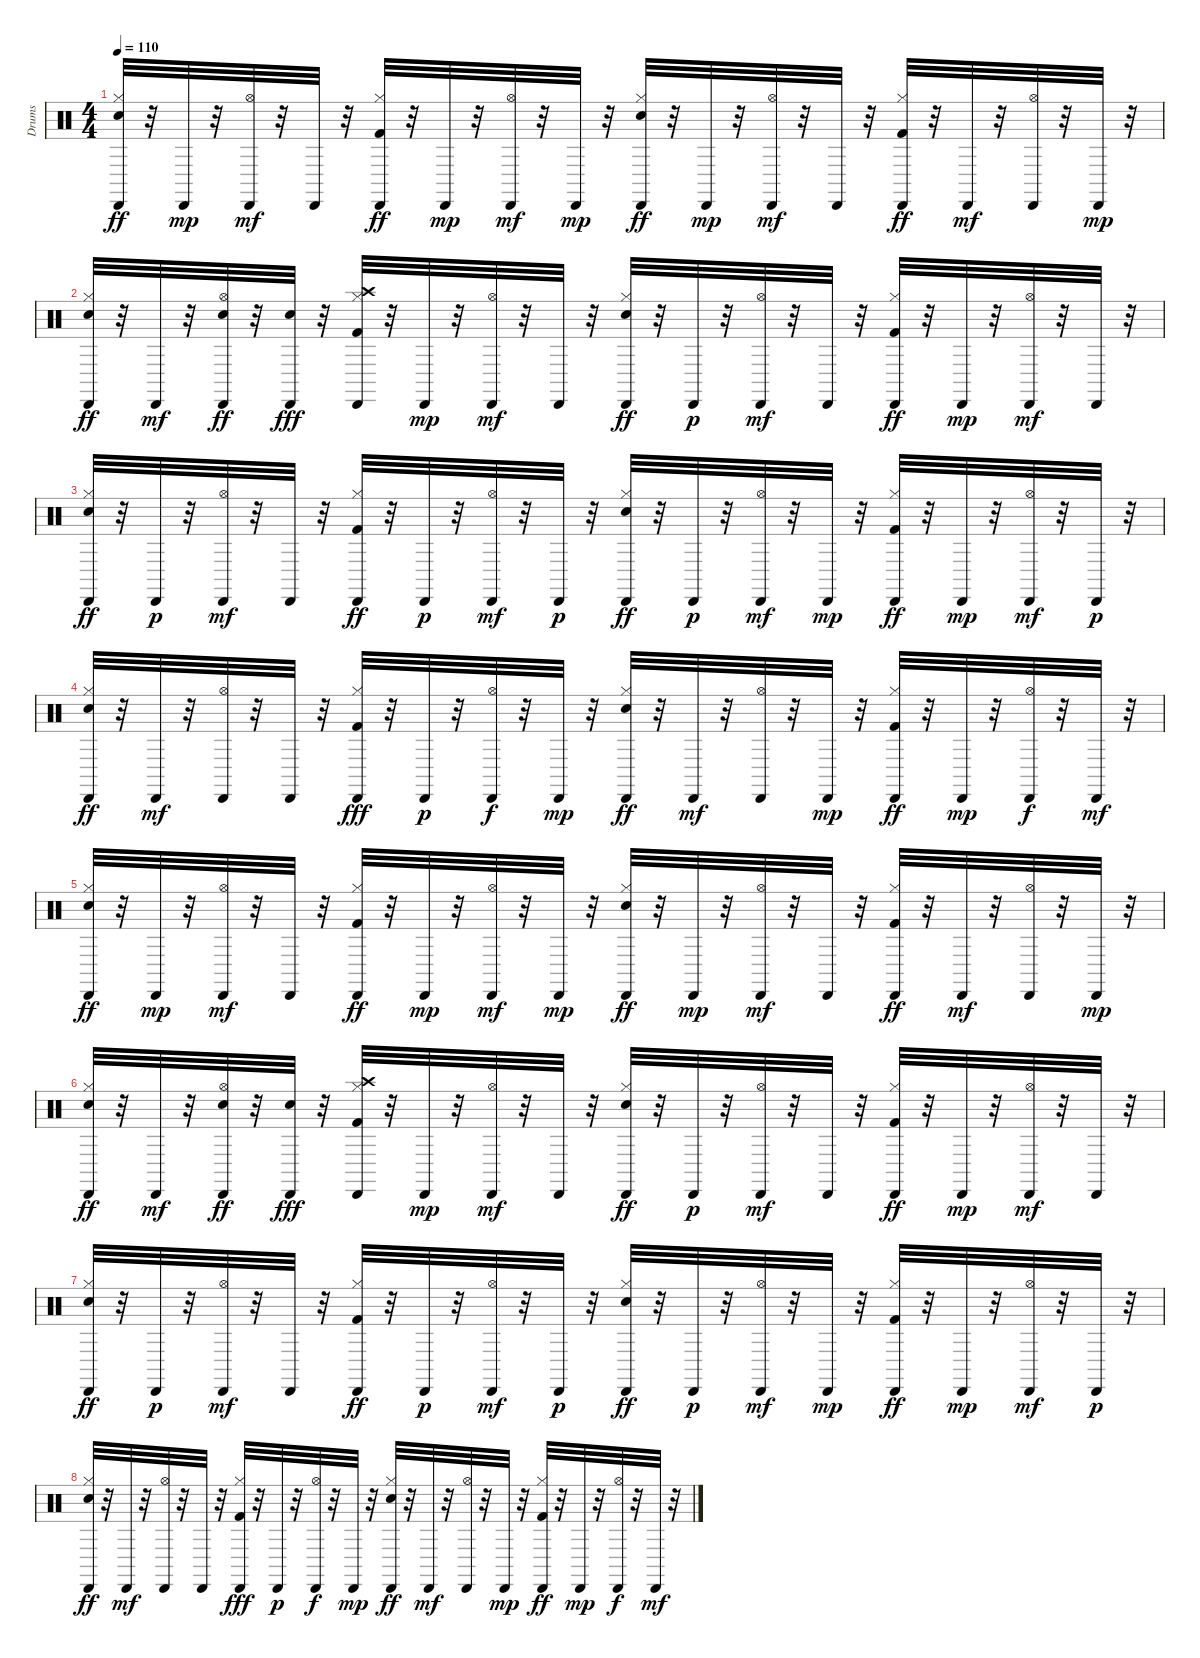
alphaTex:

\track ("Drums" "Drums") {instrument percussion}
\staff {score}
\articulation defaults
\ts (4 4)
\tempo 110
\clef neutral
\ks c
("Cabasa (hit)" "Hi-Hat (closed)" "Snare (hit) 2").32{dy ff} r.32 "Cabasa (hit)".32{dy mp} r.32 ("Hi-Hat (open)" "Cabasa (hit)").32{dy mf} r.32 "Cabasa (hit)".32 r.32 ("Cabasa (hit)" "Hi-Hat (closed)" "Kick (hit) 2").32{dy ff} r.32 "Cabasa (hit)".32{dy mp} r.32 ("Hi-Hat (open)" "Cabasa (hit)").32{dy mf} r.32 "Cabasa (hit)".32{dy mp} r.32 ("Cabasa (hit)" "Hi-Hat (closed)" "Snare (hit) 2").32{dy ff} r.32 "Cabasa (hit)".32{dy mp} r.32 ("Hi-Hat (open)" "Cabasa (hit)").32{dy mf} r.32 "Cabasa (hit)".32 r.32 ("Cabasa (hit)" "Hi-Hat (closed)" "Kick (hit) 2").32{dy ff} r.32 "Cabasa (hit)".32{dy mf} r.32 ("Hi-Hat (open)" "Cabasa (hit)").32 r.32 "Cabasa (hit)".32{dy mp} r.32 |
("Cabasa (hit)" "Hi-Hat (closed)" "Snare (hit) 2").32{dy ff} r.32 "Cabasa (hit)".32{dy mf} r.32 ("Hi-Hat (open)" "Cabasa (hit)" "Snare (hit) 2").32{dy ff} r.32 ("Cabasa (hit)" "Snare (hit) 2").32{dy fff} r.32 ("Cabasa (hit)" "Crash high (hit)" "Hi-Hat (closed)" "Kick (hit) 2").32 r.32 "Cabasa (hit)".32{dy mp} r.32 ("Hi-Hat (open)" "Cabasa (hit)").32{dy mf} r.32 "Cabasa (hit)".32 r.32 ("Cabasa (hit)" "Hi-Hat (closed)" "Snare (hit) 2").32{dy ff} r.32 "Cabasa (hit)".32{dy p} r.32 ("Hi-Hat (open)" "Cabasa (hit)").32{dy mf} r.32 "Cabasa (hit)".32 r.32 ("Cabasa (hit)" "Hi-Hat (closed)" "Kick (hit) 2").32{dy ff} r.32 "Cabasa (hit)".32{dy mp} r.32 ("Hi-Hat (open)" "Cabasa (hit)").32{dy mf} r.32 "Cabasa (hit)".32 r.32 |
("Cabasa (hit)" "Hi-Hat (closed)" "Snare (hit) 2").32{dy ff} r.32 "Cabasa (hit)".32{dy p} r.32 ("Hi-Hat (open)" "Cabasa (hit)").32{dy mf} r.32 "Cabasa (hit)".32 r.32 ("Cabasa (hit)" "Hi-Hat (closed)" "Kick (hit) 2").32{dy ff} r.32 "Cabasa (hit)".32{dy p} r.32 ("Hi-Hat (open)" "Cabasa (hit)").32{dy mf} r.32 "Cabasa (hit)".32{dy p} r.32 ("Cabasa (hit)" "Hi-Hat (closed)" "Snare (hit) 2").32{dy ff} r.32 "Cabasa (hit)".32{dy p} r.32 ("Hi-Hat (open)" "Cabasa (hit)").32{dy mf} r.32 "Cabasa (hit)".32{dy mp} r.32 ("Cabasa (hit)" "Hi-Hat (closed)" "Kick (hit) 2").32{dy ff} r.32 "Cabasa (hit)".32{dy mp} r.32 ("Hi-Hat (open)" "Cabasa (hit)").32{dy mf} r.32 "Cabasa (hit)".32{dy p} r.32 |
("Cabasa (hit)" "Hi-Hat (closed)" "Snare (hit) 2").32{dy ff} r.32 "Cabasa (hit)".32{dy mf} r.32 ("Hi-Hat (open)" "Cabasa (hit)").32 r.32 "Cabasa (hit)".32 r.32 ("Cabasa (hit)" "Hi-Hat (closed)" "Kick (hit) 2").32{dy fff} r.32 "Cabasa (hit)".32{dy p} r.32 ("Hi-Hat (open)" "Cabasa (hit)").32{dy f} r.32 "Cabasa (hit)".32{dy mp} r.32 ("Cabasa (hit)" "Hi-Hat (closed)" "Snare (hit) 2").32{dy ff} r.32 "Cabasa (hit)".32{dy mf} r.32 ("Hi-Hat (open)" "Cabasa (hit)").32 r.32 "Cabasa (hit)".32{dy mp} r.32 ("Cabasa (hit)" "Hi-Hat (closed)" "Kick (hit) 2").32{dy ff} r.32 "Cabasa (hit)".32{dy mp} r.32 ("Hi-Hat (open)" "Cabasa (hit)").32{dy f} r.32 "Cabasa (hit)".32{dy mf} r.32 |
("Cabasa (hit)" "Hi-Hat (closed)" "Snare (hit) 2").32{dy ff} r.32 "Cabasa (hit)".32{dy mp} r.32 ("Hi-Hat (open)" "Cabasa (hit)").32{dy mf} r.32 "Cabasa (hit)".32 r.32 ("Cabasa (hit)" "Hi-Hat (closed)" "Kick (hit) 2").32{dy ff} r.32 "Cabasa (hit)".32{dy mp} r.32 ("Hi-Hat (open)" "Cabasa (hit)").32{dy mf} r.32 "Cabasa (hit)".32{dy mp} r.32 ("Cabasa (hit)" "Hi-Hat (closed)" "Snare (hit) 2").32{dy ff} r.32 "Cabasa (hit)".32{dy mp} r.32 ("Hi-Hat (open)" "Cabasa (hit)").32{dy mf} r.32 "Cabasa (hit)".32 r.32 ("Cabasa (hit)" "Hi-Hat (closed)" "Kick (hit) 2").32{dy ff} r.32 "Cabasa (hit)".32{dy mf} r.32 ("Hi-Hat (open)" "Cabasa (hit)").32 r.32 "Cabasa (hit)".32{dy mp} r.32 |
("Cabasa (hit)" "Hi-Hat (closed)" "Snare (hit) 2").32{dy ff} r.32 "Cabasa (hit)".32{dy mf} r.32 ("Hi-Hat (open)" "Cabasa (hit)" "Snare (hit) 2").32{dy ff} r.32 ("Cabasa (hit)" "Snare (hit) 2").32{dy fff} r.32 ("Cabasa (hit)" "Crash high (hit)" "Hi-Hat (closed)" "Kick (hit) 2").32 r.32 "Cabasa (hit)".32{dy mp} r.32 ("Hi-Hat (open)" "Cabasa (hit)").32{dy mf} r.32 "Cabasa (hit)".32 r.32 ("Cabasa (hit)" "Hi-Hat (closed)" "Snare (hit) 2").32{dy ff} r.32 "Cabasa (hit)".32{dy p} r.32 ("Hi-Hat (open)" "Cabasa (hit)").32{dy mf} r.32 "Cabasa (hit)".32 r.32 ("Cabasa (hit)" "Hi-Hat (closed)" "Kick (hit) 2").32{dy ff} r.32 "Cabasa (hit)".32{dy mp} r.32 ("Hi-Hat (open)" "Cabasa (hit)").32{dy mf} r.32 "Cabasa (hit)".32 r.32 |
("Cabasa (hit)" "Hi-Hat (closed)" "Snare (hit) 2").32{dy ff} r.32 "Cabasa (hit)".32{dy p} r.32 ("Hi-Hat (open)" "Cabasa (hit)").32{dy mf} r.32 "Cabasa (hit)".32 r.32 ("Cabasa (hit)" "Hi-Hat (closed)" "Kick (hit) 2").32{dy ff} r.32 "Cabasa (hit)".32{dy p} r.32 ("Hi-Hat (open)" "Cabasa (hit)").32{dy mf} r.32 "Cabasa (hit)".32{dy p} r.32 ("Cabasa (hit)" "Hi-Hat (closed)" "Snare (hit) 2").32{dy ff} r.32 "Cabasa (hit)".32{dy p} r.32 ("Hi-Hat (open)" "Cabasa (hit)").32{dy mf} r.32 "Cabasa (hit)".32{dy mp} r.32 ("Cabasa (hit)" "Hi-Hat (closed)" "Kick (hit) 2").32{dy ff} r.32 "Cabasa (hit)".32{dy mp} r.32 ("Hi-Hat (open)" "Cabasa (hit)").32{dy mf} r.32 "Cabasa (hit)".32{dy p} r.32 |
("Cabasa (hit)" "Hi-Hat (closed)" "Snare (hit) 2").32{dy ff} r.32 "Cabasa (hit)".32{dy mf} r.32 ("Hi-Hat (open)" "Cabasa (hit)").32 r.32 "Cabasa (hit)".32 r.32 ("Cabasa (hit)" "Hi-Hat (closed)" "Kick (hit) 2").32{dy fff} r.32 "Cabasa (hit)".32{dy p} r.32 ("Hi-Hat (open)" "Cabasa (hit)").32{dy f} r.32 "Cabasa (hit)".32{dy mp} r.32 ("Cabasa (hit)" "Hi-Hat (closed)" "Snare (hit) 2").32{dy ff} r.32 "Cabasa (hit)".32{dy mf} r.32 ("Hi-Hat (open)" "Cabasa (hit)").32 r.32 "Cabasa (hit)".32{dy mp} r.32 ("Cabasa (hit)" "Hi-Hat (closed)" "Kick (hit) 2").32{dy ff} r.32 "Cabasa (hit)".32{dy mp} r.32 ("Hi-Hat (open)" "Cabasa (hit)").32{dy f} r.32 "Cabasa (hit)".32{dy mf} r.32
